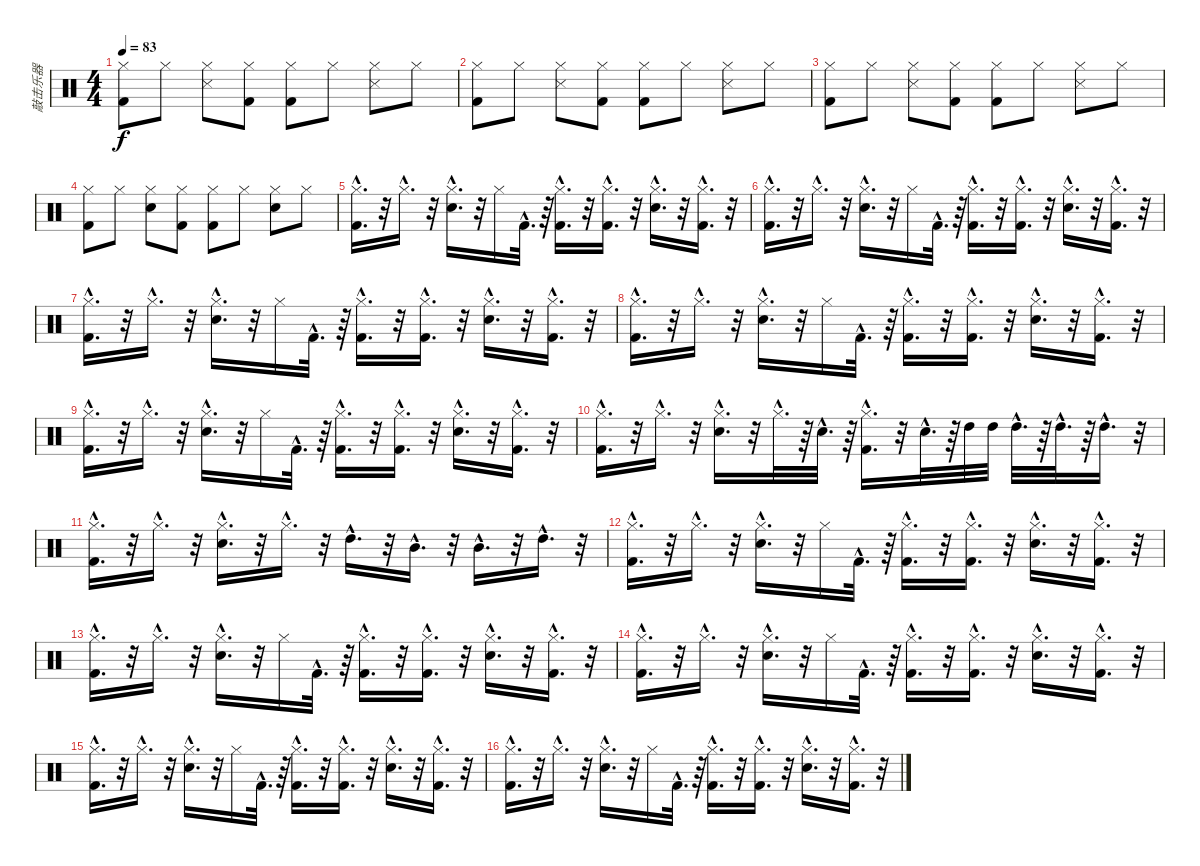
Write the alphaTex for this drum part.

\track ("敲击乐器" "敲击乐器") {instrument percussion}
\staff {score}
\articulation defaults
\ts (4 4)
\tempo 83
\clef neutral
\ks c
("Kick (hit) 2" "Hi-Hat (closed)").8{dy f} "Hi-Hat (closed)".8 ("Snare (side stick) 3" "Hi-Hat (closed)").8 ("Kick (hit) 2" "Hi-Hat (closed)").8 ("Kick (hit) 2" "Hi-Hat (closed)").8 "Hi-Hat (closed)".8 ("Snare (side stick) 3" "Hi-Hat (closed)").8 "Hi-Hat (closed)".8 |
("Kick (hit) 2" "Hi-Hat (closed)").8 "Hi-Hat (closed)".8 ("Snare (side stick) 3" "Hi-Hat (closed)").8 ("Kick (hit) 2" "Hi-Hat (closed)").8 ("Kick (hit) 2" "Hi-Hat (closed)").8 "Hi-Hat (closed)".8 ("Snare (side stick) 3" "Hi-Hat (closed)").8 "Hi-Hat (closed)".8 |
("Kick (hit) 2" "Hi-Hat (closed)").8 "Hi-Hat (closed)".8 ("Snare (side stick) 3" "Hi-Hat (closed)").8 ("Kick (hit) 2" "Hi-Hat (closed)").8 ("Kick (hit) 2" "Hi-Hat (closed)").8 "Hi-Hat (closed)".8 ("Snare (side stick) 3" "Hi-Hat (closed)").8 "Hi-Hat (closed)".8 |
("Hi-Hat (closed)" "Kick (hit) 2").8 "Hi-Hat (closed)".8 ("Snare (hit) 2" "Hi-Hat (closed)").8 ("Hi-Hat (closed)" "Kick (hit) 2").8 ("Hi-Hat (closed)" "Kick (hit) 2").8 "Hi-Hat (closed)".8 ("Snare (hit) 2" "Hi-Hat (closed)").8 "Hi-Hat (closed)".8 |
("Kick (hit) 2"{hac} "Hi-Hat (closed)"{hac}).16{d} r.32 "Hi-Hat (closed)"{hac}.16{d} r.32 ("Hi-Hat (closed)"{hac} "Snare (hit) 2"{hac}).16{d} r.32 "Hi-Hat (closed)".16 "Kick (hit) 2"{hac}.32{d} r.64 ("Hi-Hat (closed)"{hac} "Kick (hit) 2"{hac}).16{d} r.32 ("Hi-Hat (closed)"{hac} "Kick (hit) 2"{hac}).16{d} r.32 ("Snare (hit) 2"{hac} "Hi-Hat (closed)"{hac}).16{d} r.32 ("Kick (hit) 2"{hac} "Hi-Hat (closed)"{hac}).16{d} r.32 |
("Kick (hit) 2"{hac} "Hi-Hat (closed)"{hac}).16{d} r.32 "Hi-Hat (closed)"{hac}.16{d} r.32 ("Hi-Hat (closed)"{hac} "Snare (hit) 2"{hac}).16{d} r.32 "Hi-Hat (closed)".16 "Kick (hit) 2"{hac}.32{d} r.64 ("Hi-Hat (closed)"{hac} "Kick (hit) 2"{hac}).16{d} r.32 ("Hi-Hat (closed)"{hac} "Kick (hit) 2"{hac}).16{d} r.32 ("Hi-Hat (closed)"{hac} "Snare (hit) 2"{hac}).16{d} r.32 ("Kick (hit) 2"{hac} "Hi-Hat (closed)"{hac}).16{d} r.32 |
("Kick (hit) 2"{hac} "Hi-Hat (closed)"{hac}).16{d} r.32 "Hi-Hat (closed)"{hac}.16{d} r.32 ("Snare (hit) 2"{hac} "Hi-Hat (closed)"{hac}).16{d} r.32 "Hi-Hat (closed)".16 "Kick (hit) 2"{hac}.32{d} r.64 ("Hi-Hat (closed)"{hac} "Kick (hit) 2"{hac}).16{d} r.32 ("Hi-Hat (closed)"{hac} "Kick (hit) 2"{hac}).16{d} r.32 ("Snare (hit) 2"{hac} "Hi-Hat (closed)"{hac}).16{d} r.32 ("Hi-Hat (closed)"{hac} "Kick (hit) 2"{hac}).16{d} r.32 |
("Kick (hit) 2"{hac} "Hi-Hat (closed)"{hac}).16{d} r.32 "Hi-Hat (closed)"{hac}.16{d} r.32 ("Snare (hit) 2"{hac} "Hi-Hat (closed)"{hac}).16{d} r.32 "Hi-Hat (closed)".16 "Kick (hit) 2"{hac}.32{d} r.64 ("Hi-Hat (closed)"{hac} "Kick (hit) 2"{hac}).16{d} r.32 ("Hi-Hat (closed)"{hac} "Kick (hit) 2"{hac}).16{d} r.32 ("Snare (hit) 2"{hac} "Hi-Hat (closed)"{hac}).16{d} r.32 ("Kick (hit) 2"{hac} "Hi-Hat (closed)"{hac}).16{d} r.32 |
("Kick (hit) 2"{hac} "Hi-Hat (closed)"{hac}).16{d} r.32 "Hi-Hat (closed)"{hac}.16{d} r.32 ("Hi-Hat (closed)"{hac} "Snare (hit) 2"{hac}).16{d} r.32 "Hi-Hat (closed)".16 "Kick (hit) 2"{hac}.32{d} r.64 ("Kick (hit) 2"{hac} "Hi-Hat (closed)"{hac}).16{d} r.32 ("Kick (hit) 2"{hac} "Hi-Hat (closed)"{hac}).16{d} r.32 ("Hi-Hat (closed)"{hac} "Snare (hit) 2"{hac}).16{d} r.32 ("Hi-Hat (closed)"{hac} "Kick (hit) 2"{hac}).16{d} r.32 |
("Hi-Hat (closed)"{hac} "Kick (hit) 2"{hac}).16{d} r.32 "Hi-Hat (closed)"{hac}.16{d} r.32 ("Hi-Hat (closed)"{hac} "Snare (hit) 2"{hac}).16{d} r.32 "Hi-Hat (closed)"{hac}.32{d} r.64 "Snare (hit) 2"{hac}.32{d} r.64 ("Hi-Hat (closed)"{hac} "Kick (hit) 2"{hac}).16{d} r.32 "Snare (hit) 2"{hac}.32{d} r.64 "High Tom (hit)".32 "High Tom (hit)".32 "High Tom (hit)"{hac}.32{d} r.64 "High Tom (hit)"{hac}.32{d} r.64 "High Tom (hit)"{hac}.16{d} r.32 |
("Kick (hit) 2"{hac} "Hi-Hat (closed)"{hac}).16{d} r.32 "Hi-Hat (closed)"{hac}.16{d} r.32 ("Hi-Hat (closed)"{hac} "Snare (hit) 2"{hac}).16{d} r.32 "Hi-Hat (closed)"{hac}.16{d} r.32 "High Tom (hit)"{hac}.16{d} r.32 "Mid Tom (hit)"{hac}.16{d} r.32 "Mid Tom (hit)"{hac}.16{d} r.32 "High Tom (hit)"{hac}.16{d} r.32 |
("Hi-Hat (closed)"{hac} "Kick (hit) 2"{hac}).16{d} r.32 "Hi-Hat (closed)"{hac}.16{d} r.32 ("Snare (hit) 2"{hac} "Hi-Hat (closed)"{hac}).16{d} r.32 "Hi-Hat (closed)".16 "Kick (hit) 2"{hac}.32{d} r.64 ("Hi-Hat (closed)"{hac} "Kick (hit) 2"{hac}).16{d} r.32 ("Hi-Hat (closed)"{hac} "Kick (hit) 2"{hac}).16{d} r.32 ("Snare (hit) 2"{hac} "Hi-Hat (closed)"{hac}).16{d} r.32 ("Hi-Hat (closed)"{hac} "Kick (hit) 2"{hac}).16{d} r.32 |
("Hi-Hat (closed)"{hac} "Kick (hit) 2"{hac}).16{d} r.32 "Hi-Hat (closed)"{hac}.16{d} r.32 ("Hi-Hat (closed)"{hac} "Snare (hit) 2"{hac}).16{d} r.32 "Hi-Hat (closed)".16 "Kick (hit) 2"{hac}.32{d} r.64 ("Hi-Hat (closed)"{hac} "Kick (hit) 2"{hac}).16{d} r.32 ("Hi-Hat (closed)"{hac} "Kick (hit) 2"{hac}).16{d} r.32 ("Snare (hit) 2"{hac} "Hi-Hat (closed)"{hac}).16{d} r.32 ("Kick (hit) 2"{hac} "Hi-Hat (closed)"{hac}).16{d} r.32 |
("Hi-Hat (closed)"{hac} "Kick (hit) 2"{hac}).16{d} r.32 "Hi-Hat (closed)"{hac}.16{d} r.32 ("Snare (hit) 2"{hac} "Hi-Hat (closed)"{hac}).16{d} r.32 "Hi-Hat (closed)".16 "Kick (hit) 2"{hac}.32{d} r.64 ("Hi-Hat (closed)"{hac} "Kick (hit) 2"{hac}).16{d} r.32 ("Hi-Hat (closed)"{hac} "Kick (hit) 2"{hac}).16{d} r.32 ("Snare (hit) 2"{hac} "Hi-Hat (closed)"{hac}).16{d} r.32 ("Hi-Hat (closed)"{hac} "Kick (hit) 2"{hac}).16{d} r.32 |
("Hi-Hat (closed)"{hac} "Kick (hit) 2"{hac}).16{d} r.32 "Hi-Hat (closed)"{hac}.16{d} r.32 ("Hi-Hat (closed)"{hac} "Snare (hit) 2"{hac}).16{d} r.32 "Hi-Hat (closed)".16 "Kick (hit) 2"{hac}.32{d} r.64 ("Kick (hit) 2"{hac} "Hi-Hat (closed)"{hac}).16{d} r.32 ("Kick (hit) 2"{hac} "Hi-Hat (closed)"{hac}).16{d} r.32 ("Hi-Hat (closed)"{hac} "Snare (hit) 2"{hac}).16{d} r.32 ("Kick (hit) 2"{hac} "Hi-Hat (closed)"{hac}).16{d} r.32 |
("Hi-Hat (closed)"{hac} "Kick (hit) 2"{hac}).16{d} r.32 "Hi-Hat (closed)"{hac}.16{d} r.32 ("Hi-Hat (closed)"{hac} "Snare (hit) 2"{hac}).16{d} r.32 "Hi-Hat (closed)".16 "Kick (hit) 2"{hac}.32{d} r.64 ("Hi-Hat (closed)"{hac} "Kick (hit) 2"{hac}).16{d} r.32 ("Hi-Hat (closed)"{hac} "Kick (hit) 2"{hac}).16{d} r.32 ("Snare (hit) 2"{hac} "Hi-Hat (closed)"{hac}).16{d} r.32 ("Hi-Hat (closed)"{hac} "Kick (hit) 2"{hac}).16{d} r.32
